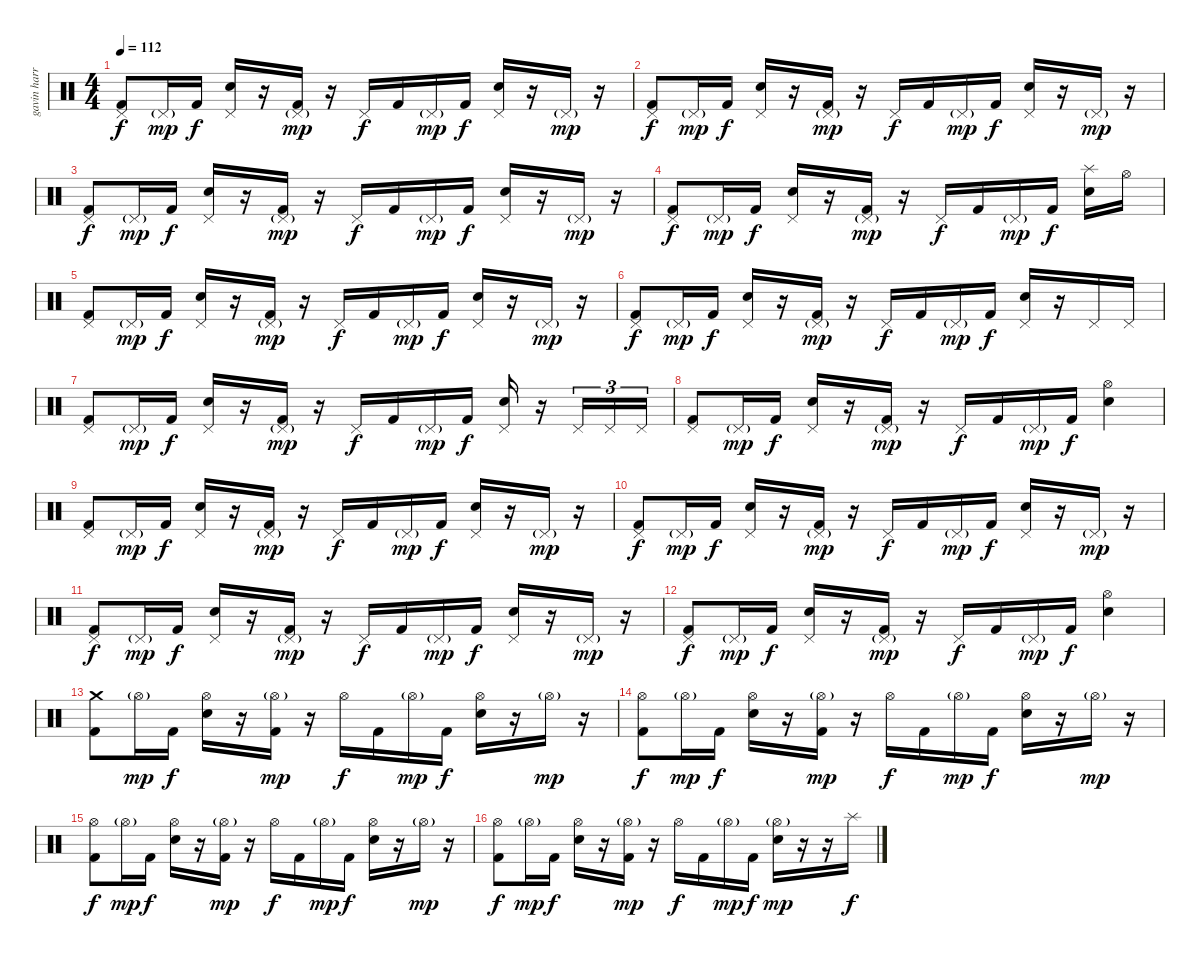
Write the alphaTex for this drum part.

\track ("gavin harrison" "gavin harr") {instrument percussion}
\staff {score}
\articulation defaults
\ts (4 4)
\tempo 112
\clef neutral
\ks c
("Pedal Hi-Hat (hit)" "Kick (hit) 2").8{dy f} "Pedal Hi-Hat (hit)"{g}.16{dy mp} "Kick (hit) 2".16{dy f} ("Pedal Hi-Hat (hit)" "Electric Snare (hit)").16 r.16 ("Pedal Hi-Hat (hit)"{g} "Kick (hit) 2").16{dy mp} r.16 "Pedal Hi-Hat (hit)".16{dy f} "Kick (hit) 2".16 "Pedal Hi-Hat (hit)"{g}.16{dy mp} "Kick (hit) 2".16{dy f} ("Pedal Hi-Hat (hit)" "Electric Snare (hit)").16 r.16 "Pedal Hi-Hat (hit)"{g}.16{dy mp} r.16 |
("Pedal Hi-Hat (hit)" "Kick (hit) 2").8{dy f} "Pedal Hi-Hat (hit)"{g}.16{dy mp} "Kick (hit) 2".16{dy f} ("Pedal Hi-Hat (hit)" "Electric Snare (hit)").16 r.16 ("Pedal Hi-Hat (hit)"{g} "Kick (hit) 2").16{dy mp} r.16 "Pedal Hi-Hat (hit)".16{dy f} "Kick (hit) 2".16 "Pedal Hi-Hat (hit)"{g}.16{dy mp} "Kick (hit) 2".16{dy f} ("Pedal Hi-Hat (hit)" "Electric Snare (hit)").16 r.16 "Pedal Hi-Hat (hit)"{g}.16{dy mp} r.16 |
("Pedal Hi-Hat (hit)" "Kick (hit) 2").8{dy f} "Pedal Hi-Hat (hit)"{g}.16{dy mp} "Kick (hit) 2".16{dy f} ("Pedal Hi-Hat (hit)" "Electric Snare (hit)").16 r.16 ("Pedal Hi-Hat (hit)"{g} "Kick (hit) 2").16{dy mp} r.16 "Pedal Hi-Hat (hit)".16{dy f} "Kick (hit) 2".16 "Pedal Hi-Hat (hit)"{g}.16{dy mp} "Kick (hit) 2".16{dy f} ("Pedal Hi-Hat (hit)" "Electric Snare (hit)").16 r.16 "Pedal Hi-Hat (hit)"{g}.16{dy mp} r.16 |
("Pedal Hi-Hat (hit)" "Kick (hit) 2").8{dy f} "Pedal Hi-Hat (hit)"{g}.16{dy mp} "Kick (hit) 2".16{dy f} ("Pedal Hi-Hat (hit)" "Electric Snare (hit)").16 r.16 ("Pedal Hi-Hat (hit)"{g} "Kick (hit) 2").16{dy mp} r.16 "Pedal Hi-Hat (hit)".16{dy f} "Kick (hit) 2".16 "Pedal Hi-Hat (hit)"{g}.16{dy mp} "Kick (hit) 2".16{dy f} ("Splash (hit)" "Electric Snare (hit)").16 "Hi-Hat (open)".16 |
("Pedal Hi-Hat (hit)" "Kick (hit) 2").8 "Pedal Hi-Hat (hit)"{g}.16{dy mp} "Kick (hit) 2".16{dy f} ("Pedal Hi-Hat (hit)" "Electric Snare (hit)").16 r.16 ("Pedal Hi-Hat (hit)"{g} "Kick (hit) 2").16{dy mp} r.16 "Pedal Hi-Hat (hit)".16{dy f} "Kick (hit) 2".16 "Pedal Hi-Hat (hit)"{g}.16{dy mp} "Kick (hit) 2".16{dy f} ("Pedal Hi-Hat (hit)" "Electric Snare (hit)").16 r.16 "Pedal Hi-Hat (hit)"{g}.16{dy mp} r.16 |
("Pedal Hi-Hat (hit)" "Kick (hit) 2").8{dy f} "Pedal Hi-Hat (hit)"{g}.16{dy mp} "Kick (hit) 2".16{dy f} ("Pedal Hi-Hat (hit)" "Electric Snare (hit)").16 r.16 ("Pedal Hi-Hat (hit)"{g} "Kick (hit) 2").16{dy mp} r.16 "Pedal Hi-Hat (hit)".16{dy f} "Kick (hit) 2".16 "Pedal Hi-Hat (hit)"{g}.16{dy mp} "Kick (hit) 2".16{dy f} ("Pedal Hi-Hat (hit)" "Electric Snare (hit)").16 r.16 "Pedal Hi-Hat (hit)".16 "Pedal Hi-Hat (hit)".16 |
("Pedal Hi-Hat (hit)" "Kick (hit) 2").8 "Pedal Hi-Hat (hit)"{g}.16{dy mp} "Kick (hit) 2".16{dy f} ("Pedal Hi-Hat (hit)" "Electric Snare (hit)").16 r.16 ("Pedal Hi-Hat (hit)"{g} "Kick (hit) 2").16{dy mp} r.16 "Pedal Hi-Hat (hit)".16{dy f} "Kick (hit) 2".16 "Pedal Hi-Hat (hit)"{g}.16{dy mp} "Kick (hit) 2".16{dy f} ("Pedal Hi-Hat (hit)" "Electric Snare (hit)").16 r.16 "Pedal Hi-Hat (hit)".16{tu (3 2)} "Pedal Hi-Hat (hit)".16{tu (3 2)} "Pedal Hi-Hat (hit)".16{tu (3 2)} |
("Pedal Hi-Hat (hit)" "Kick (hit) 2").8 "Pedal Hi-Hat (hit)"{g}.16{dy mp} "Kick (hit) 2".16{dy f} ("Pedal Hi-Hat (hit)" "Electric Snare (hit)").16 r.16 ("Pedal Hi-Hat (hit)"{g} "Kick (hit) 2").16{dy mp} r.16 "Pedal Hi-Hat (hit)".16{dy f} "Kick (hit) 2".16 "Pedal Hi-Hat (hit)"{g}.16{dy mp} "Kick (hit) 2".16{dy f} ("Hi-Hat (open)" "Electric Snare (hit)").4 |
("Pedal Hi-Hat (hit)" "Kick (hit) 2").8 "Pedal Hi-Hat (hit)"{g}.16{dy mp} "Kick (hit) 2".16{dy f} ("Pedal Hi-Hat (hit)" "Electric Snare (hit)").16 r.16 ("Pedal Hi-Hat (hit)"{g} "Kick (hit) 2").16{dy mp} r.16 "Pedal Hi-Hat (hit)".16{dy f} "Kick (hit) 2".16 "Pedal Hi-Hat (hit)"{g}.16{dy mp} "Kick (hit) 2".16{dy f} ("Pedal Hi-Hat (hit)" "Electric Snare (hit)").16 r.16 "Pedal Hi-Hat (hit)"{g}.16{dy mp} r.16 |
("Pedal Hi-Hat (hit)" "Kick (hit) 2").8{dy f} "Pedal Hi-Hat (hit)"{g}.16{dy mp} "Kick (hit) 2".16{dy f} ("Pedal Hi-Hat (hit)" "Electric Snare (hit)").16 r.16 ("Pedal Hi-Hat (hit)"{g} "Kick (hit) 2").16{dy mp} r.16 "Pedal Hi-Hat (hit)".16{dy f} "Kick (hit) 2".16 "Pedal Hi-Hat (hit)"{g}.16{dy mp} "Kick (hit) 2".16{dy f} ("Pedal Hi-Hat (hit)" "Electric Snare (hit)").16 r.16 "Pedal Hi-Hat (hit)"{g}.16{dy mp} r.16 |
("Pedal Hi-Hat (hit)" "Kick (hit) 2").8{dy f} "Pedal Hi-Hat (hit)"{g}.16{dy mp} "Kick (hit) 2".16{dy f} ("Pedal Hi-Hat (hit)" "Electric Snare (hit)").16 r.16 ("Pedal Hi-Hat (hit)"{g} "Kick (hit) 2").16{dy mp} r.16 "Pedal Hi-Hat (hit)".16{dy f} "Kick (hit) 2".16 "Pedal Hi-Hat (hit)"{g}.16{dy mp} "Kick (hit) 2".16{dy f} ("Pedal Hi-Hat (hit)" "Electric Snare (hit)").16 r.16 "Pedal Hi-Hat (hit)"{g}.16{dy mp} r.16 |
("Pedal Hi-Hat (hit)" "Kick (hit) 2").8{dy f} "Pedal Hi-Hat (hit)"{g}.16{dy mp} "Kick (hit) 2".16{dy f} ("Pedal Hi-Hat (hit)" "Electric Snare (hit)").16 r.16 ("Pedal Hi-Hat (hit)"{g} "Kick (hit) 2").16{dy mp} r.16 "Pedal Hi-Hat (hit)".16{dy f} "Kick (hit) 2".16 "Pedal Hi-Hat (hit)"{g}.16{dy mp} "Kick (hit) 2".16{dy f} ("Hi-Hat (open)" "Electric Snare (hit)").4 |
("Crash medium (hit)" "Kick (hit) 2").8 "Hi-Hat (open)"{g}.16{dy mp} "Kick (hit) 2".16{dy f} ("Hi-Hat (open)" "Electric Snare (hit)").16 r.16 ("Hi-Hat (open)"{g} "Kick (hit) 2").16{dy mp} r.16 "Hi-Hat (open)".16{dy f} "Kick (hit) 2".16 "Hi-Hat (open)"{g}.16{dy mp} "Kick (hit) 2".16{dy f} ("Hi-Hat (open)" "Electric Snare (hit)").16 r.16 "Hi-Hat (open)"{g}.16{dy mp} r.16 |
("Hi-Hat (open)" "Kick (hit) 2").8{dy f} "Hi-Hat (open)"{g}.16{dy mp} "Kick (hit) 2".16{dy f} ("Hi-Hat (open)" "Electric Snare (hit)").16 r.16 ("Hi-Hat (open)"{g} "Kick (hit) 2").16{dy mp} r.16 "Hi-Hat (open)".16{dy f} "Kick (hit) 2".16 "Hi-Hat (open)"{g}.16{dy mp} "Kick (hit) 2".16{dy f} ("Hi-Hat (open)" "Electric Snare (hit)").16 r.16 "Hi-Hat (open)"{g}.16{dy mp} r.16 |
("Hi-Hat (open)" "Kick (hit) 2").8{dy f} "Hi-Hat (open)"{g}.16{dy mp} "Kick (hit) 2".16{dy f} ("Hi-Hat (open)" "Electric Snare (hit)").16 r.16 ("Hi-Hat (open)"{g} "Kick (hit) 2").16{dy mp} r.16 "Hi-Hat (open)".16{dy f} "Kick (hit) 2".16 "Hi-Hat (open)"{g}.16{dy mp} "Kick (hit) 2".16{dy f} ("Hi-Hat (open)" "Electric Snare (hit)").16 r.16 "Hi-Hat (open)"{g}.16{dy mp} r.16 |
("Hi-Hat (open)" "Kick (hit) 2").8{dy f} "Hi-Hat (open)"{g}.16{dy mp} "Kick (hit) 2".16{dy f} ("Hi-Hat (open)" "Electric Snare (hit)").16 r.16 ("Hi-Hat (open)"{g} "Kick (hit) 2").16{dy mp} r.16 "Hi-Hat (open)".16{dy f} "Kick (hit) 2".16 "Hi-Hat (open)"{g}.16{dy mp} "Kick (hit) 2".16{dy f} ("Hi-Hat (open)"{g} "Electric Snare (hit)").16{dy mp} r.16 r.16 "Splash (hit)".16{dy f}
